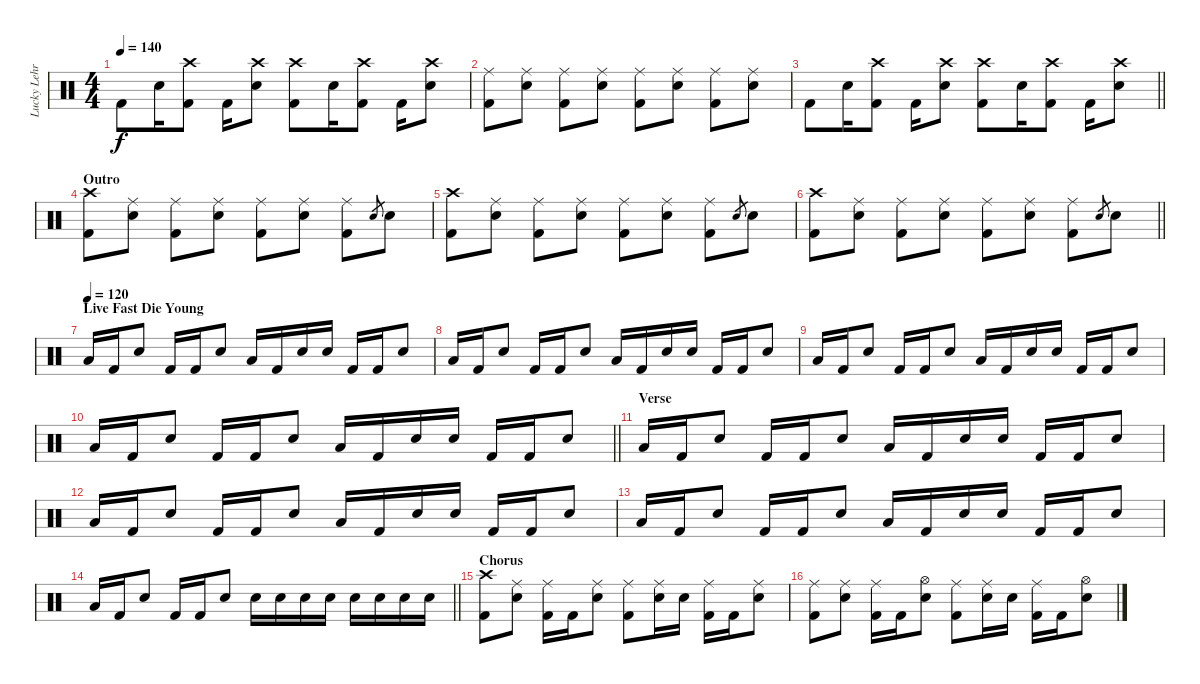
\track ("Lucky Lehrer" "Lucky Lehr") {instrument percussion}
\staff {score}
\articulation defaults
\ts (4 4)
\tempo 140
\clef neutral
\ks c "Kick (hit) 2".8{dy f} "Electric Snare (hit)".16
("Crash high (hit)" "Kick (hit) 2").8 "Kick (hit) 2".16 ("Crash high (hit)" "Electric Snare (hit)").8 ("Crash high (hit)" "Kick (hit) 2").8 "Electric Snare (hit)".16 ("Crash high (hit)" "Kick (hit) 2").8 "Kick (hit) 2".16 ("Crash high (hit)" "Electric Snare (hit)").8 |
("Ride (middle)" "Kick (hit) 2").8 ("Ride (middle)" "Electric Snare (hit)").8 ("Ride (middle)" "Kick (hit) 2").8 ("Ride (middle)" "Electric Snare (hit)").8 ("Ride (middle)" "Kick (hit) 2").8 ("Ride (middle)" "Electric Snare (hit)").8 ("Ride (middle)" "Kick (hit) 2").8 ("Ride (middle)" "Electric Snare (hit)").8 |
\barLineRight lightlight "Kick (hit) 2".8 "Electric Snare (hit)".16
("Crash high (hit)" "Kick (hit) 2").8 "Kick (hit) 2".16 ("Crash high (hit)" "Electric Snare (hit)").8 ("Crash high (hit)" "Kick (hit) 2").8 "Electric Snare (hit)".16 ("Crash high (hit)" "Kick (hit) 2").8 "Kick (hit) 2".16 ("Crash high (hit)" "Electric Snare (hit)").8 |
\section ("" "Outro")
("Crash high (hit)" "Kick (hit) 2").8 ("Ride (middle)" "Electric Snare (hit)").8 ("Ride (middle)" "Kick (hit) 2").8 ("Ride (middle)" "Electric Snare (hit)").8 ("Ride (middle)" "Kick (hit) 2").8 ("Ride (middle)" "Electric Snare (hit)").8 ("Ride (middle)" "Kick (hit) 2").8 "Electric Snare (hit)".8{gr} "Electric Snare (hit)".8 |
("Crash high (hit)" "Kick (hit) 2").8 ("Ride (middle)" "Electric Snare (hit)").8 ("Ride (middle)" "Kick (hit) 2").8 ("Ride (middle)" "Electric Snare (hit)").8 ("Ride (middle)" "Kick (hit) 2").8 ("Ride (middle)" "Electric Snare (hit)").8 ("Ride (middle)" "Kick (hit) 2").8 "Electric Snare (hit)".8{gr} "Electric Snare (hit)".8 |
\barLineRight lightlight
("Crash high (hit)" "Kick (hit) 2").8 ("Ride (middle)" "Electric Snare (hit)").8 ("Ride (middle)" "Kick (hit) 2").8 ("Ride (middle)" "Electric Snare (hit)").8 ("Ride (middle)" "Kick (hit) 2").8 ("Ride (middle)" "Electric Snare (hit)").8 ("Ride (middle)" "Kick (hit) 2").8 "Electric Snare (hit)".8{gr} "Electric Snare (hit)".8 |
\section ("" "Live Fast Die Young")
\tempo (120)
"Low Tom (hit)".16 "Kick (hit) 2".16 "Electric Snare (hit)".8 "Kick (hit) 2".16 "Kick (hit) 2".16 "Electric Snare (hit)".8 "Low Tom (hit)".16 "Kick (hit) 2".16 "Electric Snare (hit)".16 "Electric Snare (hit)".16 "Kick (hit) 2".16 "Kick (hit) 2".16 "Electric Snare (hit)".8 |
"Low Tom (hit)".16 "Kick (hit) 2".16 "Electric Snare (hit)".8 "Kick (hit) 2".16 "Kick (hit) 2".16 "Electric Snare (hit)".8 "Low Tom (hit)".16 "Kick (hit) 2".16 "Electric Snare (hit)".16 "Electric Snare (hit)".16 "Kick (hit) 2".16 "Kick (hit) 2".16 "Electric Snare (hit)".8 |
"Low Tom (hit)".16 "Kick (hit) 2".16 "Electric Snare (hit)".8 "Kick (hit) 2".16 "Kick (hit) 2".16 "Electric Snare (hit)".8 "Low Tom (hit)".16 "Kick (hit) 2".16 "Electric Snare (hit)".16 "Electric Snare (hit)".16 "Kick (hit) 2".16 "Kick (hit) 2".16 "Electric Snare (hit)".8 |
\barLineRight lightlight "Low Tom (hit)".16 "Kick (hit) 2".16 "Electric Snare (hit)".8 "Kick (hit) 2".16 "Kick (hit) 2".16 "Electric Snare (hit)".8 "Low Tom (hit)".16 "Kick (hit) 2".16 "Electric Snare (hit)".16 "Electric Snare (hit)".16 "Kick (hit) 2".16 "Kick (hit) 2".16 "Electric Snare (hit)".8
|
\section ("" "Verse")
"Low Tom (hit)".16 "Kick (hit) 2".16 "Electric Snare (hit)".8 "Kick (hit) 2".16 "Kick (hit) 2".16 "Electric Snare (hit)".8 "Low Tom (hit)".16 "Kick (hit) 2".16 "Electric Snare (hit)".16 "Electric Snare (hit)".16 "Kick (hit) 2".16 "Kick (hit) 2".16 "Electric Snare (hit)".8 |
"Low Tom (hit)".16 "Kick (hit) 2".16 "Electric Snare (hit)".8 "Kick (hit) 2".16 "Kick (hit) 2".16 "Electric Snare (hit)".8 "Low Tom (hit)".16 "Kick (hit) 2".16 "Electric Snare (hit)".16 "Electric Snare (hit)".16 "Kick (hit) 2".16 "Kick (hit) 2".16 "Electric Snare (hit)".8 |
"Low Tom (hit)".16 "Kick (hit) 2".16 "Electric Snare (hit)".8 "Kick (hit) 2".16 "Kick (hit) 2".16 "Electric Snare (hit)".8 "Low Tom (hit)".16 "Kick (hit) 2".16 "Electric Snare (hit)".16 "Electric Snare (hit)".16 "Kick (hit) 2".16 "Kick (hit) 2".16 "Electric Snare (hit)".8 |
\barLineRight lightlight "Low Tom (hit)".16 "Kick (hit) 2".16 "Electric Snare (hit)".8 "Kick (hit) 2".16 "Kick (hit) 2".16 "Electric Snare (hit)".8 "Electric Snare (hit)".16 "Electric Snare (hit)".16 "Electric Snare (hit)".16 "Electric Snare (hit)".16 "Electric Snare (hit)".16 "Electric Snare (hit)".16 "Electric Snare (hit)".16 "Electric Snare (hit)".16
|
\section ("" "Chorus")
("Crash high (hit)" "Kick (hit) 2").8 ("Ride (middle)" "Electric Snare (hit)").8 ("Ride (middle)" "Kick (hit) 2").16 "Kick (hit) 2".16 ("Ride (middle)" "Electric Snare (hit)").8 ("Ride (middle)" "Kick (hit) 2").8 ("Ride (middle)" "Electric Snare (hit)").16 "Electric Snare (hit)".16 ("Ride (middle)" "Kick (hit) 2").16 "Kick (hit) 2".16 ("Ride (middle)" "Electric Snare (hit)").8 |
("Ride (middle)" "Kick (hit) 2").8 ("Ride (middle)" "Electric Snare (hit)").8 ("Ride (middle)" "Kick (hit) 2").16 "Kick (hit) 2".16 ("Hi-Hat (open)" "Electric Snare (hit)").8 ("Ride (middle)" "Kick (hit) 2").8 ("Ride (middle)" "Electric Snare (hit)").16 "Electric Snare (hit)".16 ("Ride (middle)" "Kick (hit) 2").16 "Kick (hit) 2".16 ("Hi-Hat (open)" "Electric Snare (hit)").8
